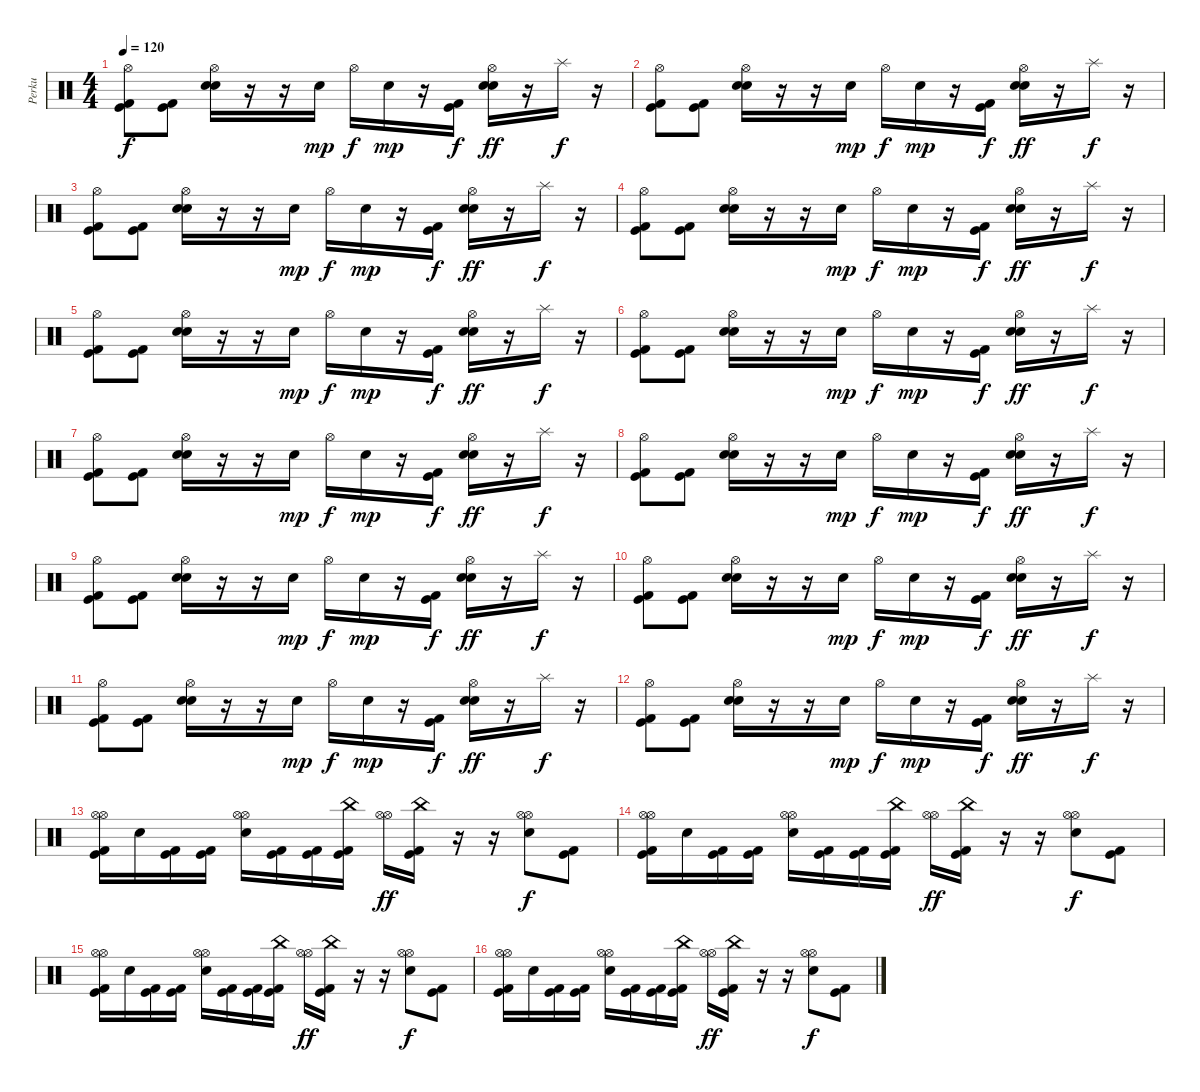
\track ("Perku" "Perku") {instrument percussion}
\staff {score}
\articulation defaults
\ts (4 4)
\tempo 120
\clef neutral
\ks c
("Hi-Hat (open)" "Kick (hit) 2" "Kick (hit)").8{dy f} ("Kick (hit) 2" "Kick (hit)").8 ("Hi-Hat (open)" "Electric Snare (hit)" "Electric Snare (hit)").16 r.16 r.16 "Electric Snare (hit)".16{dy mp} "Hi-Hat (open)".16{dy f} "Electric Snare (hit)".16{dy mp} r.16 ("Kick (hit)" "Kick (hit) 2").16{dy f} ("Hi-Hat (open)" "Electric Snare (hit)" "Electric Snare (hit)").16{dy ff} r.16 "Splash (hit)".16{dy f} r.16 |
("Hi-Hat (open)" "Kick (hit) 2" "Kick (hit)").8 ("Kick (hit) 2" "Kick (hit)").8 ("Hi-Hat (open)" "Electric Snare (hit)" "Electric Snare (hit)").16 r.16 r.16 "Electric Snare (hit)".16{dy mp} "Hi-Hat (open)".16{dy f} "Electric Snare (hit)".16{dy mp} r.16 ("Kick (hit)" "Kick (hit) 2").16{dy f} ("Hi-Hat (open)" "Electric Snare (hit)" "Electric Snare (hit)").16{dy ff} r.16 "Splash (hit)".16{dy f} r.16 |
("Hi-Hat (open)" "Kick (hit) 2" "Kick (hit)").8 ("Kick (hit) 2" "Kick (hit)").8 ("Hi-Hat (open)" "Electric Snare (hit)" "Electric Snare (hit)").16 r.16 r.16 "Electric Snare (hit)".16{dy mp} "Hi-Hat (open)".16{dy f} "Electric Snare (hit)".16{dy mp} r.16 ("Kick (hit)" "Kick (hit) 2").16{dy f} ("Hi-Hat (open)" "Electric Snare (hit)" "Electric Snare (hit)").16{dy ff} r.16 "Splash (hit)".16{dy f} r.16 |
("Hi-Hat (open)" "Kick (hit) 2" "Kick (hit)").8 ("Kick (hit) 2" "Kick (hit)").8 ("Hi-Hat (open)" "Electric Snare (hit)" "Electric Snare (hit)").16 r.16 r.16 "Electric Snare (hit)".16{dy mp} "Hi-Hat (open)".16{dy f} "Electric Snare (hit)".16{dy mp} r.16 ("Kick (hit)" "Kick (hit) 2").16{dy f} ("Hi-Hat (open)" "Electric Snare (hit)" "Electric Snare (hit)").16{dy ff} r.16 "Splash (hit)".16{dy f} r.16 |
("Hi-Hat (open)" "Kick (hit) 2" "Kick (hit)").8 ("Kick (hit) 2" "Kick (hit)").8 ("Hi-Hat (open)" "Electric Snare (hit)" "Electric Snare (hit)").16 r.16 r.16 "Electric Snare (hit)".16{dy mp} "Hi-Hat (open)".16{dy f} "Electric Snare (hit)".16{dy mp} r.16 ("Kick (hit)" "Kick (hit) 2").16{dy f} ("Hi-Hat (open)" "Electric Snare (hit)" "Electric Snare (hit)").16{dy ff} r.16 "Splash (hit)".16{dy f} r.16 |
("Hi-Hat (open)" "Kick (hit) 2" "Kick (hit)").8 ("Kick (hit) 2" "Kick (hit)").8 ("Hi-Hat (open)" "Electric Snare (hit)" "Electric Snare (hit)").16 r.16 r.16 "Electric Snare (hit)".16{dy mp} "Hi-Hat (open)".16{dy f} "Electric Snare (hit)".16{dy mp} r.16 ("Kick (hit)" "Kick (hit) 2").16{dy f} ("Hi-Hat (open)" "Electric Snare (hit)" "Electric Snare (hit)").16{dy ff} r.16 "Splash (hit)".16{dy f} r.16 |
("Hi-Hat (open)" "Kick (hit) 2" "Kick (hit)").8 ("Kick (hit) 2" "Kick (hit)").8 ("Hi-Hat (open)" "Electric Snare (hit)" "Electric Snare (hit)").16 r.16 r.16 "Electric Snare (hit)".16{dy mp} "Hi-Hat (open)".16{dy f} "Electric Snare (hit)".16{dy mp} r.16 ("Kick (hit)" "Kick (hit) 2").16{dy f} ("Hi-Hat (open)" "Electric Snare (hit)" "Electric Snare (hit)").16{dy ff} r.16 "Splash (hit)".16{dy f} r.16 |
("Hi-Hat (open)" "Kick (hit) 2" "Kick (hit)").8 ("Kick (hit) 2" "Kick (hit)").8 ("Hi-Hat (open)" "Electric Snare (hit)" "Electric Snare (hit)").16 r.16 r.16 "Electric Snare (hit)".16{dy mp} "Hi-Hat (open)".16{dy f} "Electric Snare (hit)".16{dy mp} r.16 ("Kick (hit)" "Kick (hit) 2").16{dy f} ("Hi-Hat (open)" "Electric Snare (hit)" "Electric Snare (hit)").16{dy ff} r.16 "Splash (hit)".16{dy f} r.16 |
("Hi-Hat (open)" "Kick (hit) 2" "Kick (hit)").8 ("Kick (hit) 2" "Kick (hit)").8 ("Hi-Hat (open)" "Electric Snare (hit)" "Electric Snare (hit)").16 r.16 r.16 "Electric Snare (hit)".16{dy mp} "Hi-Hat (open)".16{dy f} "Electric Snare (hit)".16{dy mp} r.16 ("Kick (hit)" "Kick (hit) 2").16{dy f} ("Hi-Hat (open)" "Electric Snare (hit)" "Electric Snare (hit)").16{dy ff} r.16 "Splash (hit)".16{dy f} r.16 |
("Hi-Hat (open)" "Kick (hit) 2" "Kick (hit)").8 ("Kick (hit) 2" "Kick (hit)").8 ("Hi-Hat (open)" "Electric Snare (hit)" "Electric Snare (hit)").16 r.16 r.16 "Electric Snare (hit)".16{dy mp} "Hi-Hat (open)".16{dy f} "Electric Snare (hit)".16{dy mp} r.16 ("Kick (hit)" "Kick (hit) 2").16{dy f} ("Hi-Hat (open)" "Electric Snare (hit)" "Electric Snare (hit)").16{dy ff} r.16 "Splash (hit)".16{dy f} r.16 |
("Hi-Hat (open)" "Kick (hit) 2" "Kick (hit)").8 ("Kick (hit) 2" "Kick (hit)").8 ("Hi-Hat (open)" "Electric Snare (hit)" "Electric Snare (hit)").16 r.16 r.16 "Electric Snare (hit)".16{dy mp} "Hi-Hat (open)".16{dy f} "Electric Snare (hit)".16{dy mp} r.16 ("Kick (hit)" "Kick (hit) 2").16{dy f} ("Hi-Hat (open)" "Electric Snare (hit)" "Electric Snare (hit)").16{dy ff} r.16 "Splash (hit)".16{dy f} r.16 |
("Hi-Hat (open)" "Kick (hit) 2" "Kick (hit)").8 ("Kick (hit) 2" "Kick (hit)").8 ("Hi-Hat (open)" "Electric Snare (hit)" "Electric Snare (hit)").16 r.16 r.16 "Electric Snare (hit)".16{dy mp} "Hi-Hat (open)".16{dy f} "Electric Snare (hit)".16{dy mp} r.16 ("Kick (hit)" "Kick (hit) 2").16{dy f} ("Hi-Hat (open)" "Electric Snare (hit)" "Electric Snare (hit)").16{dy ff} r.16 "Splash (hit)".16{dy f} r.16 |
("Hi-Hat (open)" "Hi-Hat (open)" "Kick (hit)" "Kick (hit) 2").16 "Electric Snare (hit)".16 ("Kick (hit)" "Kick (hit) 2").16 ("Kick (hit) 2" "Kick (hit)").16 ("Hi-Hat (open)" "Hi-Hat (open)" "Electric Snare (hit)").16 ("Kick (hit) 2" "Kick (hit)").16 ("Kick (hit)" "Kick (hit) 2").16 ("China (hit)" "Kick (hit)" "Kick (hit) 2").16 ("Hi-Hat (open)" "Hi-Hat (open)").16{dy ff} ("China (hit)" "Kick (hit) 2" "Kick (hit)").16 r.16 r.16 ("Hi-Hat (open)" "Hi-Hat (open)" "Electric Snare (hit)").8{dy f} ("Kick (hit)" "Kick (hit) 2").8 |
("Hi-Hat (open)" "Hi-Hat (open)" "Kick (hit)" "Kick (hit) 2").16 "Electric Snare (hit)".16 ("Kick (hit)" "Kick (hit) 2").16 ("Kick (hit) 2" "Kick (hit)").16 ("Hi-Hat (open)" "Hi-Hat (open)" "Electric Snare (hit)").16 ("Kick (hit) 2" "Kick (hit)").16 ("Kick (hit)" "Kick (hit) 2").16 ("China (hit)" "Kick (hit)" "Kick (hit) 2").16 ("Hi-Hat (open)" "Hi-Hat (open)").16{dy ff} ("China (hit)" "Kick (hit) 2" "Kick (hit)").16 r.16 r.16 ("Hi-Hat (open)" "Hi-Hat (open)" "Electric Snare (hit)").8{dy f} ("Kick (hit)" "Kick (hit) 2").8 |
("Hi-Hat (open)" "Hi-Hat (open)" "Kick (hit)" "Kick (hit) 2").16 "Electric Snare (hit)".16 ("Kick (hit)" "Kick (hit) 2").16 ("Kick (hit) 2" "Kick (hit)").16 ("Hi-Hat (open)" "Hi-Hat (open)" "Electric Snare (hit)").16 ("Kick (hit) 2" "Kick (hit)").16 ("Kick (hit)" "Kick (hit) 2").16 ("China (hit)" "Kick (hit)" "Kick (hit) 2").16 ("Hi-Hat (open)" "Hi-Hat (open)").16{dy ff} ("China (hit)" "Kick (hit) 2" "Kick (hit)").16 r.16 r.16 ("Hi-Hat (open)" "Hi-Hat (open)" "Electric Snare (hit)").8{dy f} ("Kick (hit)" "Kick (hit) 2").8 |
("Hi-Hat (open)" "Hi-Hat (open)" "Kick (hit)" "Kick (hit) 2").16 "Electric Snare (hit)".16 ("Kick (hit)" "Kick (hit) 2").16 ("Kick (hit) 2" "Kick (hit)").16 ("Hi-Hat (open)" "Hi-Hat (open)" "Electric Snare (hit)").16 ("Kick (hit) 2" "Kick (hit)").16 ("Kick (hit)" "Kick (hit) 2").16 ("China (hit)" "Kick (hit)" "Kick (hit) 2").16 ("Hi-Hat (open)" "Hi-Hat (open)").16{dy ff} ("China (hit)" "Kick (hit) 2" "Kick (hit)").16 r.16 r.16 ("Hi-Hat (open)" "Hi-Hat (open)" "Electric Snare (hit)").8{dy f} ("Kick (hit)" "Kick (hit) 2").8
